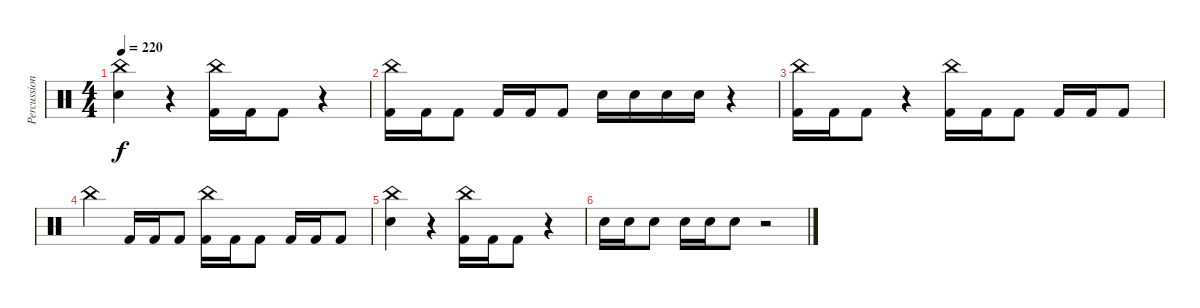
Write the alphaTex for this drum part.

\track ("Percussion" "Percussion") {instrument percussion}
\staff {score}
\articulation defaults
\ts (4 4)
\tempo 220
\clef neutral
\ks c
("China (hit)" "Electric Snare (hit)").4{dy f} r.4 ("China (hit)" "Kick (hit) 2").16 "Kick (hit) 2".16 "Kick (hit) 2".8 r.4 |
("China (hit)" "Kick (hit) 2").16 "Kick (hit) 2".16 "Kick (hit) 2".8 "Kick (hit) 2".16 "Kick (hit) 2".16 "Kick (hit) 2".8 "Electric Snare (hit)".16 "Electric Snare (hit)".16 "Electric Snare (hit)".16 "Electric Snare (hit)".16 r.4 |
("China (hit)" "Kick (hit) 2").16 "Kick (hit) 2".16 "Kick (hit) 2".8 r.4 ("China (hit)" "Kick (hit) 2").16 "Kick (hit) 2".16 "Kick (hit) 2".8 "Kick (hit) 2".16 "Kick (hit) 2".16 "Kick (hit) 2".8 |
"China (hit)".4 "Kick (hit) 2".16 "Kick (hit) 2".16 "Kick (hit) 2".8 ("China (hit)" "Kick (hit) 2").16 "Kick (hit) 2".16 "Kick (hit) 2".8 "Kick (hit) 2".16 "Kick (hit) 2".16 "Kick (hit) 2".8 |
("China (hit)" "Electric Snare (hit)").4 r.4 ("China (hit)" "Kick (hit) 2").16 "Kick (hit) 2".16 "Kick (hit) 2".8 r.4 |
"Electric Snare (hit)".16 "Electric Snare (hit)".16 "Electric Snare (hit)".8 "Electric Snare (hit)".16 "Electric Snare (hit)".16 "Electric Snare (hit)".8 r.2
